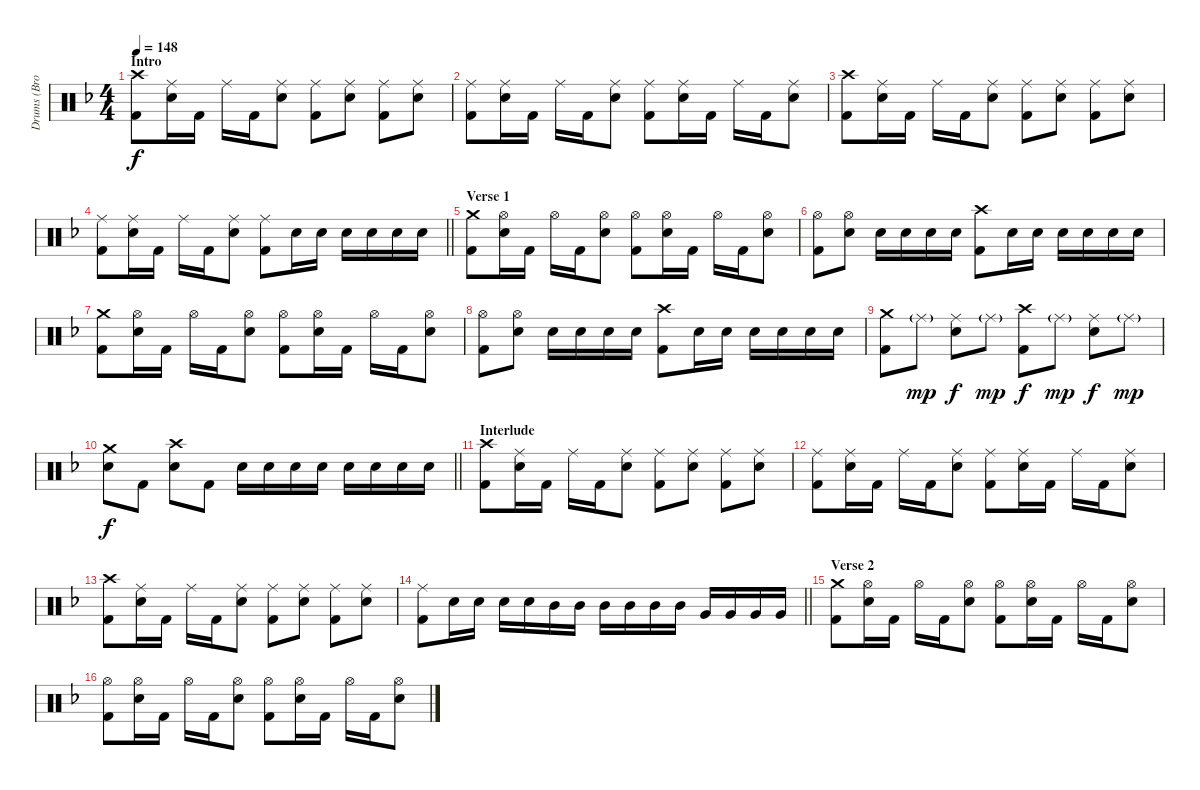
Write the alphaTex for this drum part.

\track ("Drums (Brooks Wackerman)" "Drums (Bro") {instrument percussion}
\staff {score}
\articulation defaults
\ts (4 4)
\section ("" "Intro")
\tempo 148
\clef neutral
\ks f
("Crash high (hit)" "Kick (hit) 2").8{dy f} ("Ride (middle)" "Snare (hit) 2").16 "Kick (hit) 2".16 "Ride (middle)".16 "Kick (hit) 2".16 ("Ride (middle)" "Snare (hit) 2").8 ("Ride (middle)" "Kick (hit) 2").8 ("Ride (middle)" "Snare (hit) 2").8 ("Ride (middle)" "Kick (hit) 2").8 ("Ride (middle)" "Snare (hit) 2").8 |
("Ride (middle)" "Kick (hit) 2").8 ("Ride (middle)" "Snare (hit) 2").16 "Kick (hit) 2".16 "Ride (middle)".16 "Kick (hit) 2".16 ("Ride (middle)" "Snare (hit) 2").8 ("Ride (middle)" "Kick (hit) 2").8 ("Ride (middle)" "Snare (hit) 2").16 "Kick (hit) 2".16 "Ride (middle)".16 "Kick (hit) 2".16 ("Ride (middle)" "Snare (hit) 2").8 |
("Crash high (hit)" "Kick (hit) 2").8 ("Ride (middle)" "Snare (hit) 2").16 "Kick (hit) 2".16 "Ride (middle)".16 "Kick (hit) 2".16 ("Ride (middle)" "Snare (hit) 2").8 ("Ride (middle)" "Kick (hit) 2").8 ("Ride (middle)" "Snare (hit) 2").8 ("Ride (middle)" "Kick (hit) 2").8 ("Ride (middle)" "Snare (hit) 2").8 |
\barLineRight lightlight
("Ride (middle)" "Kick (hit) 2").8 ("Ride (middle)" "Snare (hit) 2").16 "Kick (hit) 2".16 "Ride (middle)".16 "Kick (hit) 2".16 ("Ride (middle)" "Snare (hit) 2").8 ("Ride (middle)" "Kick (hit) 2").8 "Snare (hit) 2".16 "Snare (hit) 2".16 "Snare (hit) 2".16 "Snare (hit) 2".16 "Snare (hit) 2".16 "Snare (hit) 2".16 |
\section ("" "Verse 1")
("Crash medium (hit)" "Kick (hit) 2").8 ("Hi-Hat (open)" "Snare (hit) 2").16 "Kick (hit) 2".16 "Hi-Hat (open)".16 "Kick (hit) 2".16 ("Hi-Hat (open)" "Snare (hit) 2").8 ("Hi-Hat (open)" "Kick (hit) 2").8 ("Hi-Hat (open)" "Snare (hit) 2").16 "Kick (hit) 2".16 "Hi-Hat (open)".16 "Kick (hit) 2".16 ("Hi-Hat (open)" "Snare (hit) 2").8 |
("Hi-Hat (open)" "Kick (hit) 2").8 ("Hi-Hat (open)" "Snare (hit) 2").8 "Snare (hit) 2".16 "Snare (hit) 2".16 "Snare (hit) 2".16 "Snare (hit) 2".16 ("Crash high (hit)" "Kick (hit) 2").8 "Snare (hit) 2".16 "Snare (hit) 2".16 "Snare (hit) 2".16 "Snare (hit) 2".16 "Snare (hit) 2".16 "Snare (hit) 2".16 |
("Crash medium (hit)" "Kick (hit) 2").8 ("Hi-Hat (open)" "Snare (hit) 2").16 "Kick (hit) 2".16 "Hi-Hat (open)".16 "Kick (hit) 2".16 ("Hi-Hat (open)" "Snare (hit) 2").8 ("Hi-Hat (open)" "Kick (hit) 2").8 ("Hi-Hat (open)" "Snare (hit) 2").16 "Kick (hit) 2".16 "Hi-Hat (open)".16 "Kick (hit) 2".16 ("Hi-Hat (open)" "Snare (hit) 2").8 |
("Hi-Hat (open)" "Kick (hit) 2").8 ("Hi-Hat (open)" "Snare (hit) 2").8 "Snare (hit) 2".16 "Snare (hit) 2".16 "Snare (hit) 2".16 "Snare (hit) 2".16 ("Crash high (hit)" "Kick (hit) 2").8 "Snare (hit) 2".16 "Snare (hit) 2".16 "Snare (hit) 2".16 "Snare (hit) 2".16 "Snare (hit) 2".16 "Snare (hit) 2".16 |
("Crash medium (hit)" "Kick (hit) 2").8 "Ride (middle)"{g}.8{dy mp} ("Ride (middle)" "Snare (hit) 2").8{dy f} "Ride (middle)"{g}.8{dy mp} ("Crash high (hit)" "Kick (hit) 2").8{dy f} "Ride (middle)"{g}.8{dy mp} ("Ride (middle)" "Snare (hit) 2").8{dy f} "Ride (middle)"{g}.8{dy mp} |
\barLineRight lightlight
("Crash medium (hit)" "Snare (hit) 2").8{dy f} "Kick (hit) 2".8 ("Crash high (hit)" "Snare (hit) 2").8 "Kick (hit) 2".8 "Snare (hit) 2".16 "Snare (hit) 2".16 "Snare (hit) 2".16 "Snare (hit) 2".16 "Snare (hit) 2".16 "Snare (hit) 2".16 "Snare (hit) 2".16 "Snare (hit) 2".16 |
\section ("" "Interlude")
("Crash high (hit)" "Kick (hit) 2").8 ("Ride (middle)" "Snare (hit) 2").16 "Kick (hit) 2".16 "Ride (middle)".16 "Kick (hit) 2".16 ("Ride (middle)" "Snare (hit) 2").8 ("Ride (middle)" "Kick (hit) 2").8 ("Ride (middle)" "Snare (hit) 2").8 ("Ride (middle)" "Kick (hit) 2").8 ("Ride (middle)" "Snare (hit) 2").8 |
("Ride (middle)" "Kick (hit) 2").8 ("Ride (middle)" "Snare (hit) 2").16 "Kick (hit) 2".16 "Ride (middle)".16 "Kick (hit) 2".16 ("Ride (middle)" "Snare (hit) 2").8 ("Ride (middle)" "Kick (hit) 2").8 ("Ride (middle)" "Snare (hit) 2").16 "Kick (hit) 2".16 "Ride (middle)".16 "Kick (hit) 2".16 ("Ride (middle)" "Snare (hit) 2").8 |
("Crash high (hit)" "Kick (hit) 2").8 ("Ride (middle)" "Snare (hit) 2").16 "Kick (hit) 2".16 "Ride (middle)".16 "Kick (hit) 2".16 ("Ride (middle)" "Snare (hit) 2").8 ("Ride (middle)" "Kick (hit) 2").8 ("Ride (middle)" "Snare (hit) 2").8 ("Ride (middle)" "Kick (hit) 2").8 ("Ride (middle)" "Snare (hit) 2").8 |
\barLineRight lightlight
("Ride (middle)" "Kick (hit) 2").8 "Snare (hit) 2".16 "Snare (hit) 2".16 "Snare (hit) 2".16 "Snare (hit) 2".16 "Mid Tom (hit)".16 "Mid Tom (hit)".16 "Mid Tom (hit)".16 "Mid Tom (hit)".16 "Mid Tom (hit)".16 "Mid Tom (hit)".16 "Very Low Tom (hit)".16 "Very Low Tom (hit)".16 "Very Low Tom (hit)".16 "Very Low Tom (hit)".16 |
\section ("" "Verse 2")
("Crash medium (hit)" "Kick (hit) 2").8 ("Hi-Hat (open)" "Snare (hit) 2").16 "Kick (hit) 2".16 "Hi-Hat (open)".16 "Kick (hit) 2".16 ("Hi-Hat (open)" "Snare (hit) 2").8 ("Hi-Hat (open)" "Kick (hit) 2").8 ("Hi-Hat (open)" "Snare (hit) 2").16 "Kick (hit) 2".16 "Hi-Hat (open)".16 "Kick (hit) 2".16 ("Hi-Hat (open)" "Snare (hit) 2").8 |
("Hi-Hat (open)" "Kick (hit) 2").8 ("Hi-Hat (open)" "Snare (hit) 2").16 "Kick (hit) 2".16 "Hi-Hat (open)".16 "Kick (hit) 2".16 ("Hi-Hat (open)" "Snare (hit) 2").8 ("Hi-Hat (open)" "Kick (hit) 2").8 ("Hi-Hat (open)" "Snare (hit) 2").16 "Kick (hit) 2".16 "Hi-Hat (open)".16 "Kick (hit) 2".16 ("Hi-Hat (open)" "Snare (hit) 2").8
